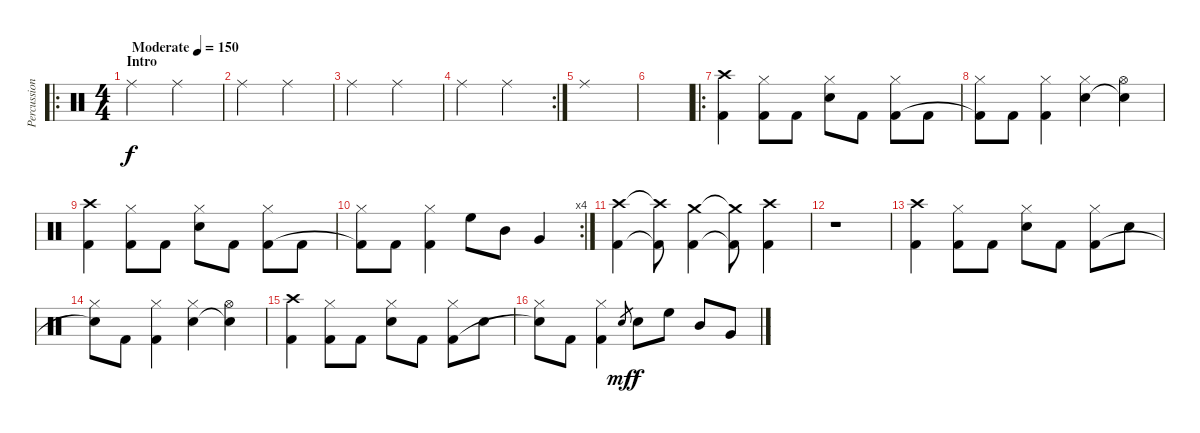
\track ("Percussion" "Percussion") {instrument percussion}
\staff {score}
\articulation defaults
\ro
\ts (4 4)
\section ("" "Intro")
\tempo (150 "Moderate")
\clef neutral
\ks c "Ride (middle)".2{dy f} "Ride (middle)".2
|
"Ride (middle)".2 "Ride (middle)".2 |
"Ride (middle)".2 "Ride (middle)".2 |
\rc 2 "Ride (middle)".2 "Ride (middle)".2
|
"Ride (middle)".1 |
|
\ro
("Crash high (hit)" "Kick (hit) 2").4 ("Hi-Hat (closed)" "Kick (hit) 2").8 "Kick (hit) 2".8 ("Hi-Hat (closed)" "Snare (hit) 2").8 "Kick (hit) 2".8 ("Hi-Hat (closed)" "Kick (hit) 2").8 "Kick (hit) 2".8 |
("Hi-Hat (closed)" "Kick (hit) 2"{t}).8 "Kick (hit) 2".8 ("Hi-Hat (closed)" "Kick (hit) 2").4 ("Hi-Hat (closed)" "Snare (hit) 2").4 ("Hi-Hat (open)" "Snare (hit) 2"{t}).4 |
("Crash high (hit)" "Kick (hit) 2").4 ("Hi-Hat (closed)" "Kick (hit) 2").8 "Kick (hit) 2".8 ("Hi-Hat (closed)" "Snare (hit) 2").8 "Kick (hit) 2".8 ("Hi-Hat (closed)" "Kick (hit) 2").8 "Kick (hit) 2".8 |
\rc 4
("Hi-Hat (closed)" "Kick (hit) 2"{t}).8 "Kick (hit) 2".8 ("Hi-Hat (closed)" "Kick (hit) 2").4 "High Floor Tom (hit)".8 "Mid Tom (hit)".8 "Very Low Tom (hit)".4 |
("Crash high (hit)" "Kick (hit) 2").4 ("Crash high (hit)"{t} "Kick (hit) 2"{t}).8 ("Crash medium (hit)" "Kick (hit) 2").4 ("Crash medium (hit)"{t} "Kick (hit) 2"{t}).8 ("Crash high (hit)" "Kick (hit) 2").4 |
r.1 |
("Crash high (hit)" "Kick (hit) 2").4 ("Hi-Hat (closed)" "Kick (hit) 2").8 "Kick (hit) 2".8 ("Hi-Hat (closed)" "Snare (hit) 2").8 "Kick (hit) 2".8 ("Hi-Hat (closed)" "Kick (hit) 2").8 "Snare (hit) 2".8 |
("Hi-Hat (closed)" "Snare (hit) 2"{t}).8 "Kick (hit) 2".8 ("Hi-Hat (closed)" "Kick (hit) 2").4 ("Hi-Hat (closed)" "Snare (hit) 2").4 ("Hi-Hat (open)" "Snare (hit) 2"{t}).4 |
("Crash high (hit)" "Kick (hit) 2").4 ("Hi-Hat (closed)" "Kick (hit) 2").8 "Kick (hit) 2".8 ("Hi-Hat (closed)" "Snare (hit) 2").8 "Kick (hit) 2".8 ("Hi-Hat (closed)" "Kick (hit) 2").8 "Snare (hit) 2".8 |
("Hi-Hat (closed)" "Snare (hit) 2"{t}).8 "Kick (hit) 2".8 ("Hi-Hat (closed)" "Kick (hit) 2").4 "Snare (hit) 2"{h}.8{gr dy mf} "Snare (hit) 2".8{dy f} "High Floor Tom (hit)".8 "Mid Tom (hit)".8 "Very Low Tom (hit)".8
